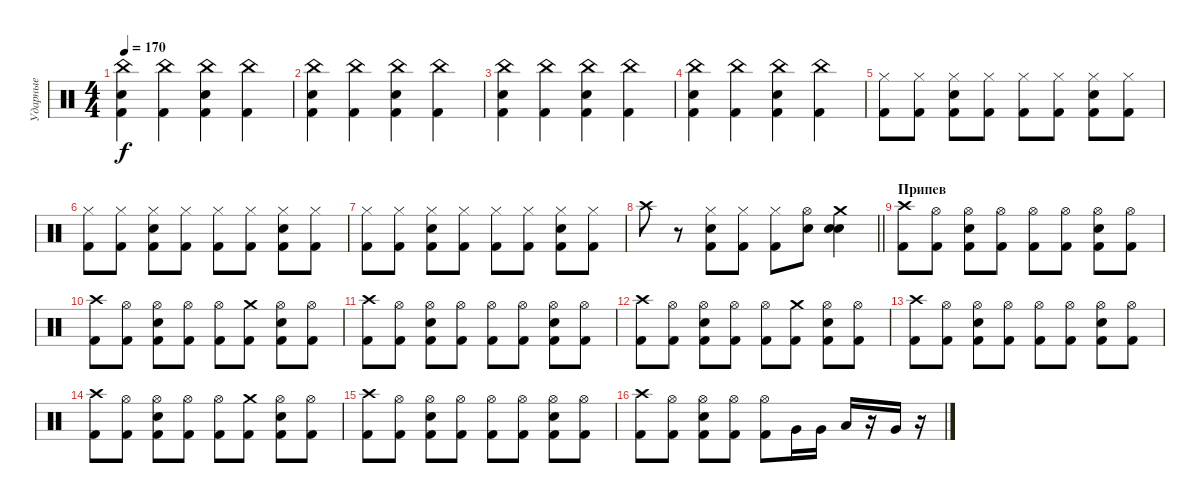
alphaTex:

\track ("Ударные" "Ударные") {instrument percussion}
\staff {score}
\articulation defaults
\ts (4 4)
\tempo 170
\clef neutral
\ks c
("China (hit)" "Snare (hit) 2" "Kick (hit) 2").4{dy f} ("China (hit)" "Kick (hit) 2").4 ("China (hit)" "Kick (hit) 2" "Snare (hit) 2").4 ("China (hit)" "Kick (hit) 2").4 |
("China (hit)" "Snare (hit) 2" "Kick (hit) 2").4 ("China (hit)" "Kick (hit) 2").4 ("China (hit)" "Kick (hit) 2" "Snare (hit) 2").4 ("China (hit)" "Kick (hit) 2").4 |
("China (hit)" "Snare (hit) 2" "Kick (hit) 2").4 ("China (hit)" "Kick (hit) 2").4 ("China (hit)" "Kick (hit) 2" "Snare (hit) 2").4 ("China (hit)" "Kick (hit) 2").4 |
("China (hit)" "Snare (hit) 2" "Kick (hit) 2").4 ("China (hit)" "Kick (hit) 2").4 ("China (hit)" "Kick (hit) 2" "Snare (hit) 2").4 ("China (hit)" "Kick (hit) 2").4 |
("Hi-Hat (closed)" "Kick (hit) 2").8 ("Hi-Hat (closed)" "Kick (hit) 2").8 ("Hi-Hat (closed)" "Kick (hit) 2" "Snare (hit) 2").8 ("Hi-Hat (closed)" "Kick (hit) 2").8 ("Hi-Hat (closed)" "Kick (hit) 2").8 ("Hi-Hat (closed)" "Kick (hit) 2").8 ("Hi-Hat (closed)" "Kick (hit) 2" "Snare (hit) 2").8 ("Hi-Hat (closed)" "Kick (hit) 2").8 |
("Hi-Hat (closed)" "Kick (hit) 2").8 ("Hi-Hat (closed)" "Kick (hit) 2").8 ("Hi-Hat (closed)" "Kick (hit) 2" "Snare (hit) 2").8 ("Hi-Hat (closed)" "Kick (hit) 2").8 ("Hi-Hat (closed)" "Kick (hit) 2").8 ("Hi-Hat (closed)" "Kick (hit) 2").8 ("Hi-Hat (closed)" "Kick (hit) 2" "Snare (hit) 2").8 ("Hi-Hat (closed)" "Kick (hit) 2").8 |
("Hi-Hat (closed)" "Kick (hit) 2").8 ("Hi-Hat (closed)" "Kick (hit) 2").8 ("Hi-Hat (closed)" "Kick (hit) 2" "Snare (hit) 2").8 ("Hi-Hat (closed)" "Kick (hit) 2").8 ("Hi-Hat (closed)" "Kick (hit) 2").8 ("Hi-Hat (closed)" "Kick (hit) 2").8 ("Hi-Hat (closed)" "Kick (hit) 2" "Snare (hit) 2").8 ("Hi-Hat (closed)" "Kick (hit) 2").8 |
\barLineRight lightlight "Crash high (hit)".8
r.8 ("Hi-Hat (closed)" "Snare (hit) 2" "Kick (hit) 2").8 ("Hi-Hat (closed)" "Kick (hit) 2").8 ("Hi-Hat (closed)" "Kick (hit) 2").8 ("Hi-Hat (open)" "Electric Snare (hit)").8 ("Crash medium (hit)" "Electric Snare (hit)" "Snare (hit) 2").4 |
\section ("" "Припев")
("Crash high (hit)" "Kick (hit) 2").8 ("Hi-Hat (open)" "Kick (hit) 2").8 ("Hi-Hat (open)" "Snare (hit) 2" "Kick (hit) 2").8 ("Hi-Hat (open)" "Kick (hit) 2").8 ("Hi-Hat (open)" "Kick (hit) 2").8 ("Hi-Hat (open)" "Kick (hit) 2").8 ("Hi-Hat (open)" "Snare (hit) 2" "Kick (hit) 2").8 ("Hi-Hat (open)" "Kick (hit) 2").8 |
("Crash high (hit)" "Kick (hit) 2").8 ("Hi-Hat (open)" "Kick (hit) 2").8 ("Hi-Hat (open)" "Snare (hit) 2" "Kick (hit) 2").8 ("Hi-Hat (open)" "Kick (hit) 2").8 ("Hi-Hat (open)" "Kick (hit) 2").8 ("Crash medium (hit)" "Kick (hit) 2").8 ("Hi-Hat (open)" "Snare (hit) 2" "Kick (hit) 2").8 ("Hi-Hat (open)" "Kick (hit) 2").8 |
("Crash high (hit)" "Kick (hit) 2").8 ("Hi-Hat (open)" "Kick (hit) 2").8 ("Hi-Hat (open)" "Snare (hit) 2" "Kick (hit) 2").8 ("Hi-Hat (open)" "Kick (hit) 2").8 ("Hi-Hat (open)" "Kick (hit) 2").8 ("Hi-Hat (open)" "Kick (hit) 2").8 ("Hi-Hat (open)" "Snare (hit) 2" "Kick (hit) 2").8 ("Hi-Hat (open)" "Kick (hit) 2").8 |
("Crash high (hit)" "Kick (hit) 2").8 ("Hi-Hat (open)" "Kick (hit) 2").8 ("Hi-Hat (open)" "Snare (hit) 2" "Kick (hit) 2").8 ("Hi-Hat (open)" "Kick (hit) 2").8 ("Hi-Hat (open)" "Kick (hit) 2").8 ("Crash medium (hit)" "Kick (hit) 2").8 ("Hi-Hat (open)" "Snare (hit) 2" "Kick (hit) 2").8 ("Hi-Hat (open)" "Kick (hit) 2").8 |
("Crash high (hit)" "Kick (hit) 2").8 ("Hi-Hat (open)" "Kick (hit) 2").8 ("Hi-Hat (open)" "Snare (hit) 2" "Kick (hit) 2").8 ("Hi-Hat (open)" "Kick (hit) 2").8 ("Hi-Hat (open)" "Kick (hit) 2").8 ("Hi-Hat (open)" "Kick (hit) 2").8 ("Hi-Hat (open)" "Snare (hit) 2" "Kick (hit) 2").8 ("Hi-Hat (open)" "Kick (hit) 2").8 |
("Crash high (hit)" "Kick (hit) 2").8 ("Hi-Hat (open)" "Kick (hit) 2").8 ("Hi-Hat (open)" "Snare (hit) 2" "Kick (hit) 2").8 ("Hi-Hat (open)" "Kick (hit) 2").8 ("Hi-Hat (open)" "Kick (hit) 2").8 ("Crash medium (hit)" "Kick (hit) 2").8 ("Hi-Hat (open)" "Snare (hit) 2" "Kick (hit) 2").8 ("Hi-Hat (open)" "Kick (hit) 2").8 |
("Crash high (hit)" "Kick (hit) 2").8 ("Hi-Hat (open)" "Kick (hit) 2").8 ("Hi-Hat (open)" "Snare (hit) 2" "Kick (hit) 2").8 ("Hi-Hat (open)" "Kick (hit) 2").8 ("Hi-Hat (open)" "Kick (hit) 2").8 ("Hi-Hat (open)" "Kick (hit) 2").8 ("Hi-Hat (open)" "Snare (hit) 2" "Kick (hit) 2").8 ("Hi-Hat (open)" "Kick (hit) 2").8 |
("Crash high (hit)" "Kick (hit) 2").8 ("Hi-Hat (open)" "Kick (hit) 2").8 ("Hi-Hat (open)" "Snare (hit) 2" "Kick (hit) 2").8 ("Hi-Hat (open)" "Kick (hit) 2").8 ("Hi-Hat (open)" "Kick (hit) 2").8 "Very Low Tom (hit)".16 "Very Low Tom (hit)".16 "Low Tom (hit)".16 r.16 "Very Low Tom (hit)".16 r.16
